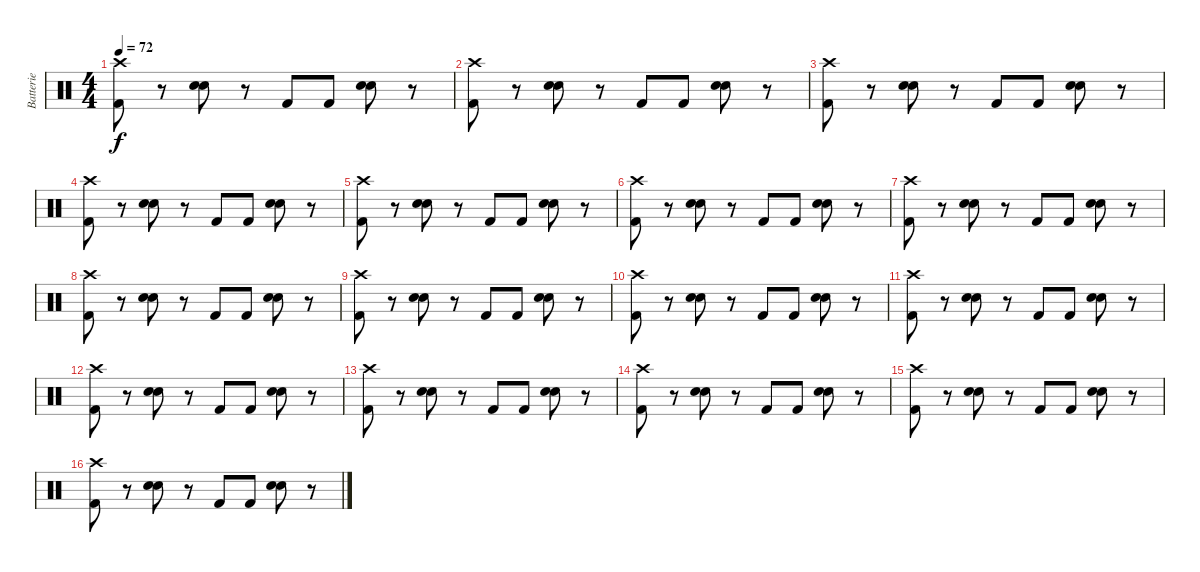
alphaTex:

\track ("Batterie" "Batterie") {instrument percussion}
\staff {score}
\articulation defaults
\ts (4 4)
\tempo 72
\clef neutral
\ks c
("Crash high (hit)" "Kick (hit) 2").8{dy f} r.8 ("Snare (hit) 2" "Snare (hit) 2").8 r.8 "Kick (hit) 2".8 "Kick (hit) 2".8 ("Snare (hit) 2" "Snare (hit) 2").8 r.8 |
("Crash high (hit)" "Kick (hit) 2").8 r.8 ("Snare (hit) 2" "Snare (hit) 2").8 r.8 "Kick (hit) 2".8 "Kick (hit) 2".8 ("Snare (hit) 2" "Snare (hit) 2").8 r.8 |
("Crash high (hit)" "Kick (hit) 2").8 r.8 ("Snare (hit) 2" "Snare (hit) 2").8 r.8 "Kick (hit) 2".8 "Kick (hit) 2".8 ("Snare (hit) 2" "Snare (hit) 2").8 r.8 |
("Crash high (hit)" "Kick (hit) 2").8 r.8 ("Snare (hit) 2" "Snare (hit) 2").8 r.8 "Kick (hit) 2".8 "Kick (hit) 2".8 ("Snare (hit) 2" "Snare (hit) 2").8 r.8 |
("Crash high (hit)" "Kick (hit) 2").8 r.8 ("Snare (hit) 2" "Snare (hit) 2").8 r.8 "Kick (hit) 2".8 "Kick (hit) 2".8 ("Snare (hit) 2" "Snare (hit) 2").8 r.8 |
("Crash high (hit)" "Kick (hit) 2").8 r.8 ("Snare (hit) 2" "Snare (hit) 2").8 r.8 "Kick (hit) 2".8 "Kick (hit) 2".8 ("Snare (hit) 2" "Snare (hit) 2").8 r.8 |
("Crash high (hit)" "Kick (hit) 2").8 r.8 ("Snare (hit) 2" "Snare (hit) 2").8 r.8 "Kick (hit) 2".8 "Kick (hit) 2".8 ("Snare (hit) 2" "Snare (hit) 2").8 r.8 |
("Crash high (hit)" "Kick (hit) 2").8 r.8 ("Snare (hit) 2" "Snare (hit) 2").8 r.8 "Kick (hit) 2".8 "Kick (hit) 2".8 ("Snare (hit) 2" "Snare (hit) 2").8 r.8 |
("Crash high (hit)" "Kick (hit) 2").8 r.8 ("Snare (hit) 2" "Snare (hit) 2").8 r.8 "Kick (hit) 2".8 "Kick (hit) 2".8 ("Snare (hit) 2" "Snare (hit) 2").8 r.8 |
("Crash high (hit)" "Kick (hit) 2").8 r.8 ("Snare (hit) 2" "Snare (hit) 2").8 r.8 "Kick (hit) 2".8 "Kick (hit) 2".8 ("Snare (hit) 2" "Snare (hit) 2").8 r.8 |
("Crash high (hit)" "Kick (hit) 2").8 r.8 ("Snare (hit) 2" "Snare (hit) 2").8 r.8 "Kick (hit) 2".8 "Kick (hit) 2".8 ("Snare (hit) 2" "Snare (hit) 2").8 r.8 |
("Crash high (hit)" "Kick (hit) 2").8 r.8 ("Snare (hit) 2" "Snare (hit) 2").8 r.8 "Kick (hit) 2".8 "Kick (hit) 2".8 ("Snare (hit) 2" "Snare (hit) 2").8 r.8 |
("Crash high (hit)" "Kick (hit) 2").8 r.8 ("Snare (hit) 2" "Snare (hit) 2").8 r.8 "Kick (hit) 2".8 "Kick (hit) 2".8 ("Snare (hit) 2" "Snare (hit) 2").8 r.8 |
("Crash high (hit)" "Kick (hit) 2").8 r.8 ("Snare (hit) 2" "Snare (hit) 2").8 r.8 "Kick (hit) 2".8 "Kick (hit) 2".8 ("Snare (hit) 2" "Snare (hit) 2").8 r.8 |
("Crash high (hit)" "Kick (hit) 2").8 r.8 ("Snare (hit) 2" "Snare (hit) 2").8 r.8 "Kick (hit) 2".8 "Kick (hit) 2".8 ("Snare (hit) 2" "Snare (hit) 2").8 r.8 |
("Crash high (hit)" "Kick (hit) 2").8 r.8 ("Snare (hit) 2" "Snare (hit) 2").8 r.8 "Kick (hit) 2".8 "Kick (hit) 2".8 ("Snare (hit) 2" "Snare (hit) 2").8 r.8
